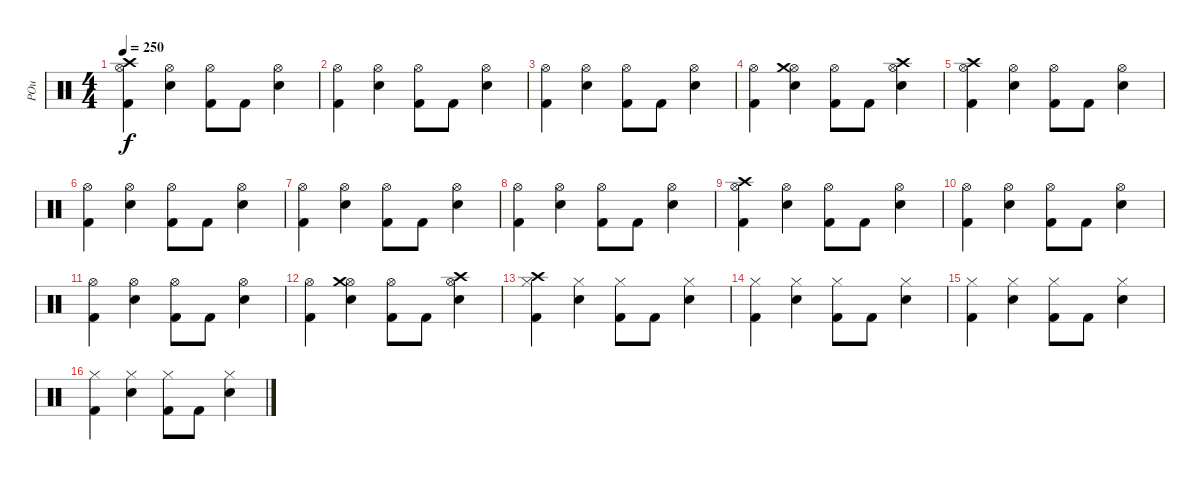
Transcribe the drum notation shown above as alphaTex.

\track ("POu" "POu") {instrument percussion}
\staff {score}
\articulation defaults
\ts (4 4)
\tempo 250
\clef neutral
\ks c
("Kick (hit) 2" "Hi-Hat (open)" "Crash high (hit)").4{dy f} ("Electric Snare (hit)" "Hi-Hat (open)").4 ("Kick (hit) 2" "Hi-Hat (open)").8 "Kick (hit) 2".8 ("Electric Snare (hit)" "Hi-Hat (open)").4 |
("Kick (hit) 2" "Hi-Hat (open)").4 ("Electric Snare (hit)" "Hi-Hat (open)").4 ("Kick (hit) 2" "Hi-Hat (open)").8 "Kick (hit) 2".8 ("Electric Snare (hit)" "Hi-Hat (open)").4 |
("Kick (hit) 2" "Hi-Hat (open)").4 ("Electric Snare (hit)" "Hi-Hat (open)").4 ("Kick (hit) 2" "Hi-Hat (open)").8 "Kick (hit) 2".8 ("Electric Snare (hit)" "Hi-Hat (open)").4 |
("Kick (hit) 2" "Hi-Hat (open)").4 ("Electric Snare (hit)" "Hi-Hat (open)" "Crash medium (hit)").4 ("Kick (hit) 2" "Hi-Hat (open)").8 "Kick (hit) 2".8 ("Electric Snare (hit)" "Hi-Hat (open)" "Crash high (hit)").4 |
("Kick (hit) 2" "Hi-Hat (open)" "Crash high (hit)").4 ("Electric Snare (hit)" "Hi-Hat (open)").4 ("Kick (hit) 2" "Hi-Hat (open)").8 "Kick (hit) 2".8 ("Electric Snare (hit)" "Hi-Hat (open)").4 |
("Kick (hit) 2" "Hi-Hat (open)").4 ("Electric Snare (hit)" "Hi-Hat (open)").4 ("Kick (hit) 2" "Hi-Hat (open)").8 "Kick (hit) 2".8 ("Electric Snare (hit)" "Hi-Hat (open)").4 |
("Kick (hit) 2" "Hi-Hat (open)").4 ("Electric Snare (hit)" "Hi-Hat (open)").4 ("Kick (hit) 2" "Hi-Hat (open)").8 "Kick (hit) 2".8 ("Electric Snare (hit)" "Hi-Hat (open)").4 |
("Kick (hit) 2" "Hi-Hat (open)").4 ("Electric Snare (hit)" "Hi-Hat (open)").4 ("Kick (hit) 2" "Hi-Hat (open)").8 "Kick (hit) 2".8 ("Electric Snare (hit)" "Hi-Hat (open)").4 |
("Kick (hit) 2" "Hi-Hat (open)" "Crash high (hit)").4 ("Electric Snare (hit)" "Hi-Hat (open)").4 ("Kick (hit) 2" "Hi-Hat (open)").8 "Kick (hit) 2".8 ("Electric Snare (hit)" "Hi-Hat (open)").4 |
("Kick (hit) 2" "Hi-Hat (open)").4 ("Electric Snare (hit)" "Hi-Hat (open)").4 ("Kick (hit) 2" "Hi-Hat (open)").8 "Kick (hit) 2".8 ("Electric Snare (hit)" "Hi-Hat (open)").4 |
("Kick (hit) 2" "Hi-Hat (open)").4 ("Electric Snare (hit)" "Hi-Hat (open)").4 ("Kick (hit) 2" "Hi-Hat (open)").8 "Kick (hit) 2".8 ("Electric Snare (hit)" "Hi-Hat (open)").4 |
("Kick (hit) 2" "Hi-Hat (open)").4 ("Electric Snare (hit)" "Hi-Hat (open)" "Crash medium (hit)").4 ("Kick (hit) 2" "Hi-Hat (open)").8 "Kick (hit) 2".8 ("Electric Snare (hit)" "Hi-Hat (open)" "Crash high (hit)").4 |
("Kick (hit) 2" "Hi-Hat (closed)" "Crash high (hit)").4 ("Electric Snare (hit)" "Hi-Hat (closed)").4 ("Kick (hit) 2" "Hi-Hat (closed)").8 "Kick (hit) 2".8 ("Electric Snare (hit)" "Hi-Hat (closed)").4 |
("Kick (hit) 2" "Hi-Hat (closed)").4 ("Electric Snare (hit)" "Hi-Hat (closed)").4 ("Kick (hit) 2" "Hi-Hat (closed)").8 "Kick (hit) 2".8 ("Electric Snare (hit)" "Hi-Hat (closed)").4 |
("Kick (hit) 2" "Hi-Hat (closed)").4 ("Electric Snare (hit)" "Hi-Hat (closed)").4 ("Kick (hit) 2" "Hi-Hat (closed)").8 "Kick (hit) 2".8 ("Electric Snare (hit)" "Hi-Hat (closed)").4 |
("Kick (hit) 2" "Hi-Hat (closed)").4 ("Electric Snare (hit)" "Hi-Hat (closed)").4 ("Kick (hit) 2" "Hi-Hat (closed)").8 "Kick (hit) 2".8 ("Electric Snare (hit)" "Hi-Hat (closed)").4
